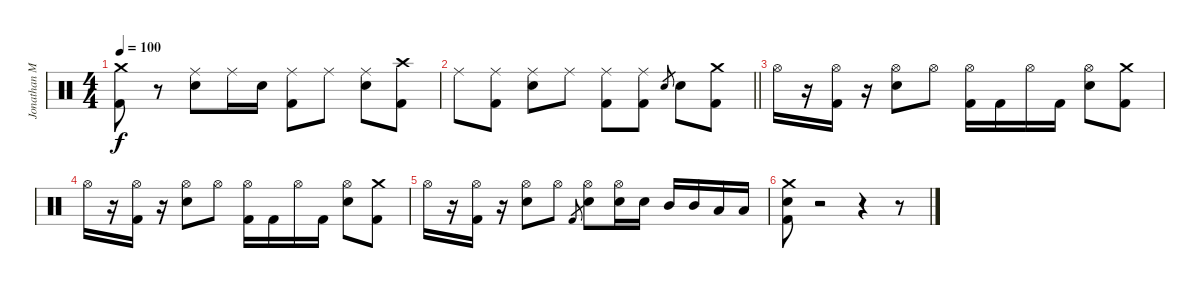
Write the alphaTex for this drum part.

\track ("Jonathan Mover (Studio Drummer)" "Jonathan M") {instrument percussion}
\staff {score}
\articulation defaults
\ts (4 4)
\tempo 100
\clef neutral
\ks c
("Crash medium (hit)" "Kick (hit) 2").8{dy f} r.8 ("Ride (middle)" "Snare (hit) 2").8 "Ride (middle)".16 "Snare (hit) 2".16 ("Ride (middle)" "Kick (hit) 2").8 "Ride (middle)".8 ("Ride (middle)" "Snare (hit) 2").8 ("Crash high (hit)" "Kick (hit) 2").8 |
\barLineRight lightlight "Ride (middle)".8
("Ride (middle)" "Kick (hit) 2").8 ("Ride (middle)" "Snare (hit) 2").8 "Ride (middle)".8 ("Ride (middle)" "Kick (hit) 2").8 ("Ride (middle)" "Kick (hit) 2").8 "Snare (hit) 2".8{gr} "Snare (hit) 2".8 ("Crash medium (hit)" "Kick (hit) 2").8 |
"Hi-Hat (open)".16 r.16 ("Hi-Hat (open)" "Kick (hit) 2").16 r.16 ("Hi-Hat (open)" "Snare (hit) 2").8 "Hi-Hat (open)".8 ("Hi-Hat (open)" "Kick (hit) 2").16 "Kick (hit) 2".16 "Hi-Hat (open)".16 "Kick (hit) 2".16 ("Hi-Hat (open)" "Snare (hit) 2").8 ("Crash medium (hit)" "Kick (hit) 2").8 |
"Hi-Hat (open)".16 r.16 ("Hi-Hat (open)" "Kick (hit) 2").16 r.16 ("Hi-Hat (open)" "Snare (hit) 2").8 "Hi-Hat (open)".8 ("Hi-Hat (open)" "Kick (hit) 2").16 "Kick (hit) 2".16 "Hi-Hat (open)".16 "Kick (hit) 2".16 ("Hi-Hat (open)" "Snare (hit) 2").8 ("Crash medium (hit)" "Kick (hit) 2").8 |
"Hi-Hat (open)".16 r.16 ("Hi-Hat (open)" "Kick (hit) 2").16 r.16 ("Hi-Hat (open)" "Snare (hit) 2").8 "Hi-Hat (open)".8 "Kick (hit) 2".8{gr} ("Hi-Hat (open)" "Snare (hit) 2").8 ("Hi-Hat (open)" "Snare (hit) 2").16 "Snare (hit) 2".16 "Mid Tom (hit)".16 "Mid Tom (hit)".16 "Low Tom (hit)".16 "Low Tom (hit)".16 |
("Crash medium (hit)" "Snare (hit) 2" "Kick (hit) 2").8 r.2 r.4 r.8
